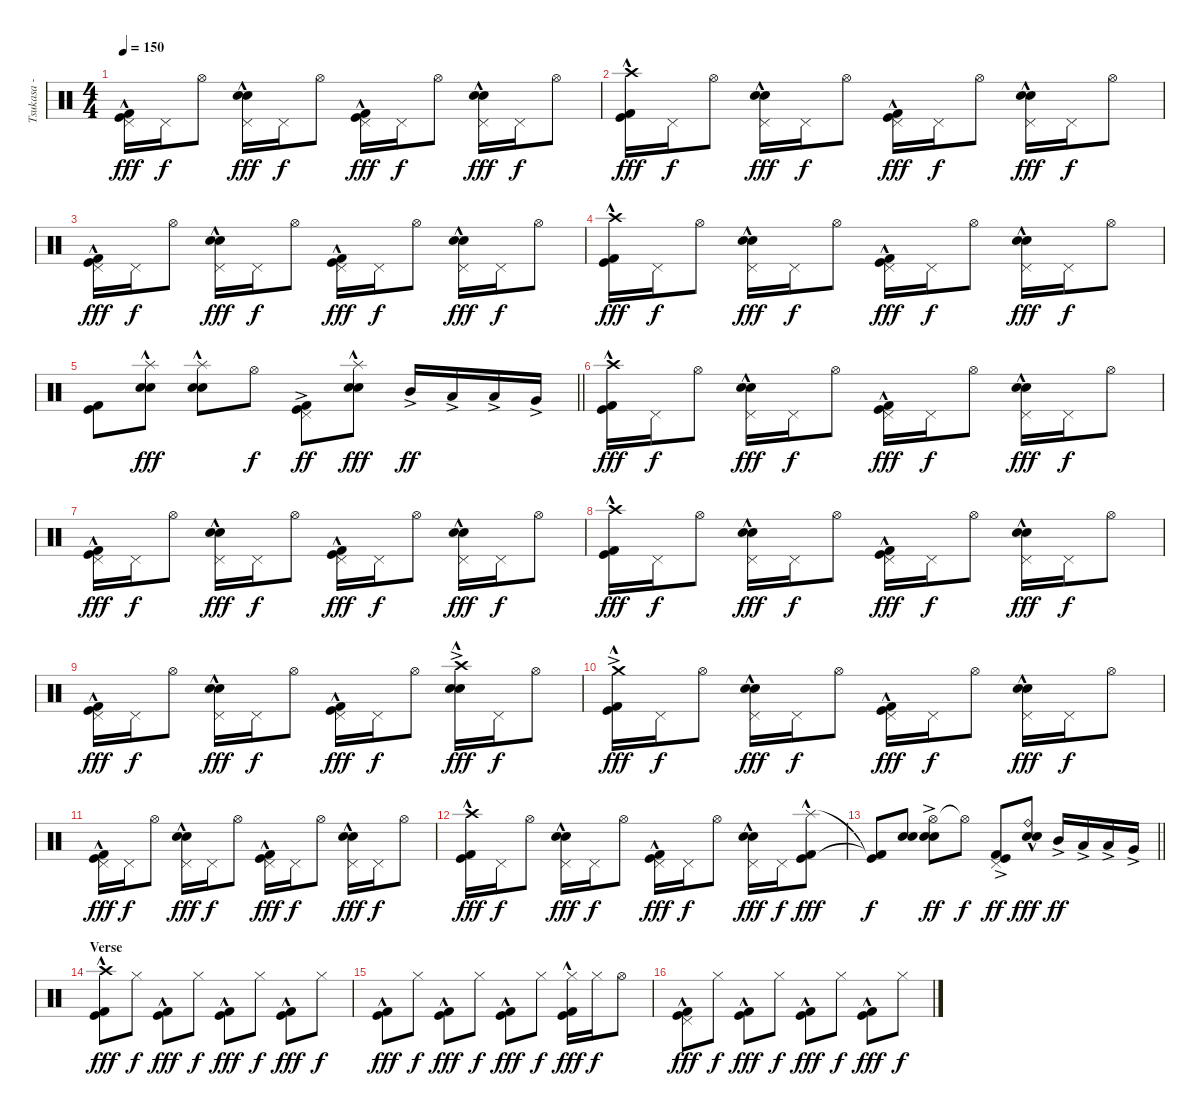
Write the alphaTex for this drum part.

\track ("Tsukasa - Drums" "Tsukasa - ") {instrument percussion}
\staff {score}
\articulation defaults
\ts (4 4)
\tempo 150
\clef neutral
\ks c
("Pedal Hi-Hat (hit)" "Kick (hit)"{hac} "Kick (hit) 2"{hac}).16{dy fff} "Pedal Hi-Hat (hit)".16{dy f} "Hi-Hat (open)".8 ("Pedal Hi-Hat (hit)" "Electric Snare (hit)"{hac} "Snare (hit) 2").16{dy fff} "Pedal Hi-Hat (hit)".16{dy f} "Hi-Hat (open)".8 ("Pedal Hi-Hat (hit)" "Kick (hit)"{hac} "Kick (hit) 2"{hac}).16{dy fff} "Pedal Hi-Hat (hit)".16{dy f} "Hi-Hat (open)".8 ("Pedal Hi-Hat (hit)" "Electric Snare (hit)"{hac} "Snare (hit) 2").16{dy fff} "Pedal Hi-Hat (hit)".16{dy f} "Hi-Hat (open)".8 |
("Crash high (hit)" "Kick (hit)"{hac} "Kick (hit) 2"{hac}).16{dy fff} "Pedal Hi-Hat (hit)".16{dy f} "Hi-Hat (open)".8 ("Pedal Hi-Hat (hit)" "Electric Snare (hit)"{hac} "Snare (hit) 2").16{dy fff} "Pedal Hi-Hat (hit)".16{dy f} "Hi-Hat (open)".8 ("Pedal Hi-Hat (hit)" "Kick (hit)"{hac} "Kick (hit) 2"{hac}).16{dy fff} "Pedal Hi-Hat (hit)".16{dy f} "Hi-Hat (open)".8 ("Pedal Hi-Hat (hit)" "Electric Snare (hit)"{hac} "Snare (hit) 2").16{dy fff} "Pedal Hi-Hat (hit)".16{dy f} "Hi-Hat (open)".8 |
("Pedal Hi-Hat (hit)" "Kick (hit)"{hac} "Kick (hit) 2"{hac}).16{dy fff} "Pedal Hi-Hat (hit)".16{dy f} "Hi-Hat (open)".8 ("Pedal Hi-Hat (hit)" "Electric Snare (hit)"{hac} "Snare (hit) 2").16{dy fff} "Pedal Hi-Hat (hit)".16{dy f} "Hi-Hat (open)".8 ("Pedal Hi-Hat (hit)" "Kick (hit)"{hac} "Kick (hit) 2"{hac}).16{dy fff} "Pedal Hi-Hat (hit)".16{dy f} "Hi-Hat (open)".8 ("Pedal Hi-Hat (hit)" "Electric Snare (hit)"{hac} "Snare (hit) 2").16{dy fff} "Pedal Hi-Hat (hit)".16{dy f} "Hi-Hat (open)".8 |
("Crash high (hit)" "Kick (hit)"{hac} "Kick (hit) 2"{hac}).16{dy fff} "Pedal Hi-Hat (hit)".16{dy f} "Hi-Hat (open)".8 ("Pedal Hi-Hat (hit)" "Electric Snare (hit)"{hac} "Snare (hit) 2").16{dy fff} "Pedal Hi-Hat (hit)".16{dy f} "Hi-Hat (open)".8 ("Pedal Hi-Hat (hit)" "Kick (hit)"{hac} "Kick (hit) 2"{hac}).16{dy fff} "Pedal Hi-Hat (hit)".16{dy f} "Hi-Hat (open)".8 ("Pedal Hi-Hat (hit)" "Electric Snare (hit)"{hac} "Snare (hit) 2").16{dy fff} "Pedal Hi-Hat (hit)".16{dy f} "Hi-Hat (open)".8 |
\barLineRight lightlight
("Kick (hit)" "Kick (hit) 2").8 ("Splash (hit)"{hac} "Electric Snare (hit)"{hac} "Snare (hit) 2").8{dy fff} ("Splash (hit)"{hac} "Electric Snare (hit)"{hac} "Snare (hit) 2").8 "Hi-Hat (open)".8{dy f} ("Pedal Hi-Hat (hit)" "Kick (hit)"{ac} "Kick (hit) 2"{ac}).8{dy ff} ("Splash (hit)"{hac} "Electric Snare (hit)"{hac} "Snare (hit) 2").8{dy fff} "Mid Tom (hit)"{ac}.16{dy ff} "Low Tom (hit)"{ac}.16 "Low Tom (hit)"{ac}.16 "Very Low Tom (hit)"{ac}.16 |
\section ("" "")
("Crash high (hit)" "Kick (hit)"{hac} "Kick (hit) 2"{hac}).16{dy fff} "Pedal Hi-Hat (hit)".16{dy f} "Hi-Hat (open)".8 ("Pedal Hi-Hat (hit)" "Electric Snare (hit)"{hac} "Snare (hit) 2").16{dy fff} "Pedal Hi-Hat (hit)".16{dy f} "Hi-Hat (open)".8 ("Pedal Hi-Hat (hit)" "Kick (hit)"{hac} "Kick (hit) 2"{hac}).16{dy fff} "Pedal Hi-Hat (hit)".16{dy f} "Hi-Hat (open)".8 ("Pedal Hi-Hat (hit)" "Electric Snare (hit)"{hac} "Snare (hit) 2").16{dy fff} "Pedal Hi-Hat (hit)".16{dy f} "Hi-Hat (open)".8 |
("Pedal Hi-Hat (hit)" "Kick (hit)"{hac} "Kick (hit) 2"{hac}).16{dy fff} "Pedal Hi-Hat (hit)".16{dy f} "Hi-Hat (open)".8 ("Pedal Hi-Hat (hit)" "Electric Snare (hit)"{hac} "Snare (hit) 2").16{dy fff} "Pedal Hi-Hat (hit)".16{dy f} "Hi-Hat (open)".8 ("Pedal Hi-Hat (hit)" "Kick (hit)"{hac} "Kick (hit) 2"{hac}).16{dy fff} "Pedal Hi-Hat (hit)".16{dy f} "Hi-Hat (open)".8 ("Pedal Hi-Hat (hit)" "Electric Snare (hit)"{hac} "Snare (hit) 2").16{dy fff} "Pedal Hi-Hat (hit)".16{dy f} "Hi-Hat (open)".8 |
("Crash high (hit)" "Kick (hit)"{hac} "Kick (hit) 2"{hac}).16{dy fff} "Pedal Hi-Hat (hit)".16{dy f} "Hi-Hat (open)".8 ("Pedal Hi-Hat (hit)" "Electric Snare (hit)"{hac} "Snare (hit) 2").16{dy fff} "Pedal Hi-Hat (hit)".16{dy f} "Hi-Hat (open)".8 ("Pedal Hi-Hat (hit)" "Kick (hit)"{hac} "Kick (hit) 2"{hac}).16{dy fff} "Pedal Hi-Hat (hit)".16{dy f} "Hi-Hat (open)".8 ("Pedal Hi-Hat (hit)" "Electric Snare (hit)"{hac} "Snare (hit) 2").16{dy fff} "Pedal Hi-Hat (hit)".16{dy f} "Hi-Hat (open)".8 |
("Pedal Hi-Hat (hit)" "Kick (hit)"{hac} "Kick (hit) 2"{hac}).16{dy fff} "Pedal Hi-Hat (hit)".16{dy f} "Hi-Hat (open)".8 ("Pedal Hi-Hat (hit)" "Electric Snare (hit)"{hac} "Snare (hit) 2").16{dy fff} "Pedal Hi-Hat (hit)".16{dy f} "Hi-Hat (open)".8 ("Pedal Hi-Hat (hit)" "Kick (hit)"{hac} "Kick (hit) 2"{hac}).16{dy fff} "Pedal Hi-Hat (hit)".16{dy f} "Hi-Hat (open)".8 ("Crash high (hit)"{ac} "Electric Snare (hit)"{hac} "Snare (hit) 2").16{dy fff} "Pedal Hi-Hat (hit)".16{dy f} "Hi-Hat (open)".8 |
("Crash medium (hit)"{ac} "Kick (hit)"{hac} "Kick (hit) 2"{hac}).16{dy fff} "Pedal Hi-Hat (hit)".16{dy f} "Hi-Hat (open)".8 ("Pedal Hi-Hat (hit)" "Electric Snare (hit)"{hac} "Snare (hit) 2").16{dy fff} "Pedal Hi-Hat (hit)".16{dy f} "Hi-Hat (open)".8 ("Pedal Hi-Hat (hit)" "Kick (hit)"{hac} "Kick (hit) 2"{hac}).16{dy fff} "Pedal Hi-Hat (hit)".16{dy f} "Hi-Hat (open)".8 ("Pedal Hi-Hat (hit)" "Electric Snare (hit)"{hac} "Snare (hit) 2").16{dy fff} "Pedal Hi-Hat (hit)".16{dy f} "Hi-Hat (open)".8 |
("Pedal Hi-Hat (hit)" "Kick (hit)"{hac} "Kick (hit) 2"{hac}).16{dy fff} "Pedal Hi-Hat (hit)".16{dy f} "Hi-Hat (open)".8 ("Pedal Hi-Hat (hit)" "Electric Snare (hit)"{hac} "Snare (hit) 2").16{dy fff} "Pedal Hi-Hat (hit)".16{dy f} "Hi-Hat (open)".8 ("Pedal Hi-Hat (hit)" "Kick (hit)"{hac} "Kick (hit) 2"{hac}).16{dy fff} "Pedal Hi-Hat (hit)".16{dy f} "Hi-Hat (open)".8 ("Pedal Hi-Hat (hit)" "Electric Snare (hit)"{hac} "Snare (hit) 2").16{dy fff} "Pedal Hi-Hat (hit)".16{dy f} "Hi-Hat (open)".8 |
("Crash high (hit)" "Kick (hit)"{hac} "Kick (hit) 2"{hac}).16{dy fff} "Pedal Hi-Hat (hit)".16{dy f} "Hi-Hat (open)".8 ("Pedal Hi-Hat (hit)" "Electric Snare (hit)"{hac} "Snare (hit) 2").16{dy fff} "Pedal Hi-Hat (hit)".16{dy f} "Hi-Hat (open)".8 ("Pedal Hi-Hat (hit)" "Kick (hit)"{hac} "Kick (hit) 2"{hac}).16{dy fff} "Pedal Hi-Hat (hit)".16{dy f} "Hi-Hat (open)".8 ("Pedal Hi-Hat (hit)" "Electric Snare (hit)"{hac} "Snare (hit) 2").16{dy fff} "Pedal Hi-Hat (hit)".16{dy f} ("Splash (hit)"{hac} "Kick (hit)"{hac} "Kick (hit) 2"{hac}).8{dy fff} |
\barLineRight lightlight
("Kick (hit)"{t} "Kick (hit) 2"{t}).8{dy f} ("Electric Snare (hit)" "Snare (hit) 2").8 ("Hi-Hat (open)"{ac} "Electric Snare (hit)" "Snare (hit) 2").8{dy ff} "Hi-Hat (open)"{t}.8{dy f} ("Pedal Hi-Hat (hit)" "Kick (hit)"{ac} "Kick (hit) 2"{ac}).8{dy ff} ("Ride (bell)" "Electric Snare (hit)"{hac} "Snare (hit) 2").8{dy fff} "Mid Tom (hit)"{ac}.16{dy ff} "Low Tom (hit)"{ac}.16 "Low Tom (hit)"{ac}.16 "Very Low Tom (hit)"{ac}.16 |
\section ("" "Verse")
("Crash high (hit)" "Kick (hit)" "Kick (hit) 2"{hac}).8{dy fff} "Hi-Hat (closed)".8{dy f} ("Kick (hit)" "Kick (hit) 2"{hac}).8{dy fff} "Hi-Hat (closed)".8{dy f} ("Kick (hit)" "Kick (hit) 2"{hac}).8{dy fff} "Hi-Hat (closed)".8{dy f} ("Kick (hit)" "Kick (hit) 2"{hac}).8{dy fff} "Hi-Hat (closed)".8{dy f} |
("Kick (hit)" "Kick (hit) 2"{hac}).8{dy fff} "Hi-Hat (closed)".8{dy f} ("Kick (hit)" "Kick (hit) 2"{hac}).8{dy fff} "Hi-Hat (closed)".8{dy f} ("Kick (hit)" "Kick (hit) 2"{hac}).8{dy fff} "Hi-Hat (closed)".8{dy f} ("Hi-Hat (closed)" "Kick (hit)" "Kick (hit) 2"{hac}).16{dy fff} "Hi-Hat (closed)".16{dy f} "Hi-Hat (open)".8 |
("Pedal Hi-Hat (hit)" "Kick (hit)" "Kick (hit) 2"{hac}).8{dy fff} "Hi-Hat (closed)".8{dy f} ("Kick (hit)" "Kick (hit) 2"{hac}).8{dy fff} "Hi-Hat (closed)".8{dy f} ("Kick (hit)" "Kick (hit) 2"{hac}).8{dy fff} "Hi-Hat (closed)".8{dy f} ("Kick (hit)" "Kick (hit) 2"{hac}).8{dy fff} "Hi-Hat (closed)".8{dy f}
